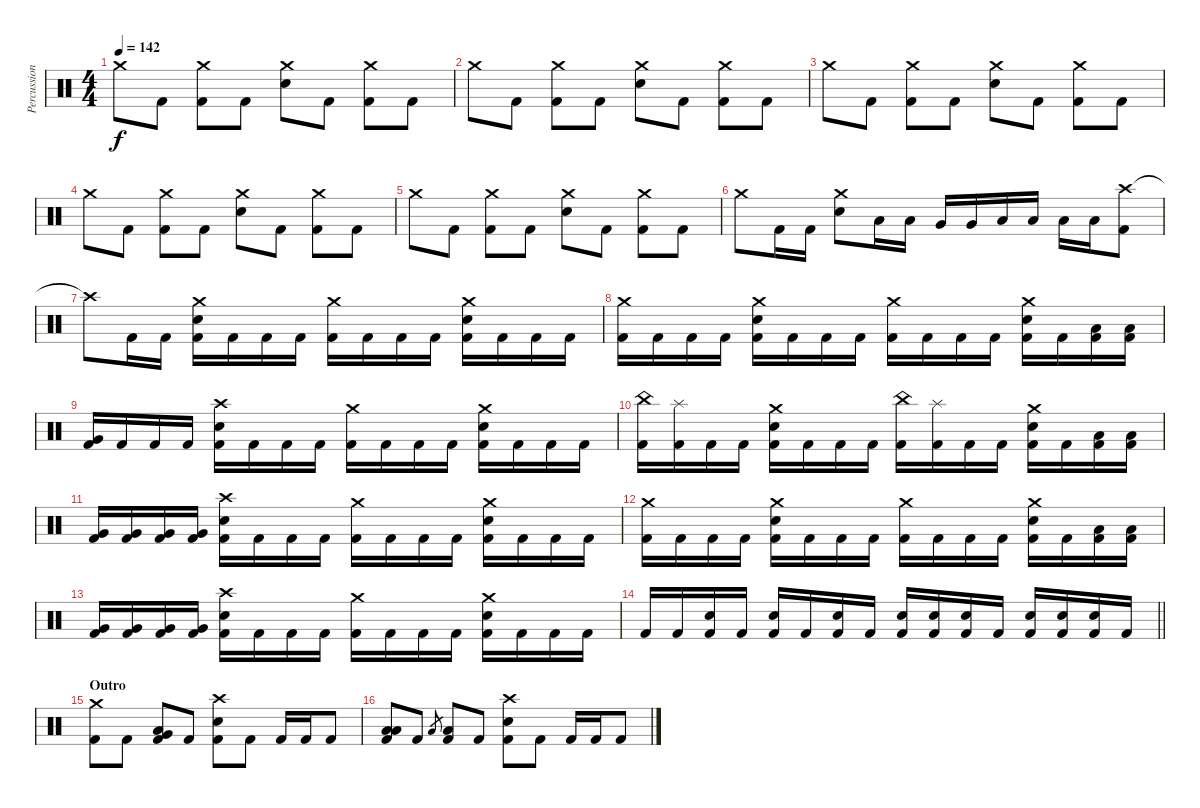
\track ("Percussion" "Percussion") {instrument percussion}
\staff {score}
\articulation defaults
\ts (4 4)
\tempo 142
\clef neutral
\ks c "Crash medium (hit)".8{dy f} "Kick (hit) 2".8
("Crash medium (hit)" "Kick (hit) 2").8 "Kick (hit) 2".8 ("Crash medium (hit)" "Electric Snare (hit)").8 "Kick (hit) 2".8 ("Crash medium (hit)" "Kick (hit) 2").8 "Kick (hit) 2".8 |
"Crash medium (hit)".8 "Kick (hit) 2".8 ("Crash medium (hit)" "Kick (hit) 2").8 "Kick (hit) 2".8 ("Crash medium (hit)" "Electric Snare (hit)").8 "Kick (hit) 2".8 ("Crash medium (hit)" "Kick (hit) 2").8 "Kick (hit) 2".8 |
"Crash medium (hit)".8 "Kick (hit) 2".8 ("Crash medium (hit)" "Kick (hit) 2").8 "Kick (hit) 2".8 ("Crash medium (hit)" "Electric Snare (hit)").8 "Kick (hit) 2".8 ("Crash medium (hit)" "Kick (hit) 2").8 "Kick (hit) 2".8 |
"Crash medium (hit)".8 "Kick (hit) 2".8 ("Crash medium (hit)" "Kick (hit) 2").8 "Kick (hit) 2".8 ("Crash medium (hit)" "Electric Snare (hit)").8 "Kick (hit) 2".8 ("Crash medium (hit)" "Kick (hit) 2").8 "Kick (hit) 2".8 |
"Crash medium (hit)".8 "Kick (hit) 2".8 ("Crash medium (hit)" "Kick (hit) 2").8 "Kick (hit) 2".8 ("Crash medium (hit)" "Electric Snare (hit)").8 "Kick (hit) 2".8 ("Crash medium (hit)" "Kick (hit) 2").8 "Kick (hit) 2".8 |
"Crash medium (hit)".8 "Kick (hit) 2".16 "Kick (hit) 2".16 ("Crash medium (hit)" "Electric Snare (hit)").8 "Low Tom (hit)".16 "Low Tom (hit)".16 "Very Low Tom (hit)".16 "Very Low Tom (hit)".16 "Low Floor Tom (hit)".16 "Low Floor Tom (hit)".16 "Low Floor Tom (hit)".16 "Low Floor Tom (hit)".16 ("Crash high (hit)" "Kick (hit) 2").8 |
"Crash high (hit)"{t}.8 "Kick (hit) 2".16 "Kick (hit) 2".16 ("Crash medium (hit)" "Electric Snare (hit)" "Kick (hit) 2").16 "Kick (hit) 2".16 "Kick (hit) 2".16 "Kick (hit) 2".16 ("Crash medium (hit)" "Kick (hit) 2").16 "Kick (hit) 2".16 "Kick (hit) 2".16 "Kick (hit) 2".16 ("Crash medium (hit)" "Electric Snare (hit)" "Kick (hit) 2").16 "Kick (hit) 2".16 "Kick (hit) 2".16 "Kick (hit) 2".16 |
("Crash medium (hit)" "Kick (hit) 2").16 "Kick (hit) 2".16 "Kick (hit) 2".16 "Kick (hit) 2".16 ("Crash medium (hit)" "Electric Snare (hit)" "Kick (hit) 2").16 "Kick (hit) 2".16 "Kick (hit) 2".16 "Kick (hit) 2".16 ("Crash medium (hit)" "Kick (hit) 2").16 "Kick (hit) 2".16 "Kick (hit) 2".16 "Kick (hit) 2".16 ("Crash medium (hit)" "Electric Snare (hit)" "Kick (hit) 2").16 "Kick (hit) 2".16 ("Low Tom (hit)" "Kick (hit) 2").16 ("Low Tom (hit)" "Kick (hit) 2").16 |
("Very Low Tom (hit)" "Kick (hit) 2").16 "Kick (hit) 2".16 "Kick (hit) 2".16 "Kick (hit) 2".16 ("Crash high (hit)" "Electric Snare (hit)" "Kick (hit) 2").16 "Kick (hit) 2".16 "Kick (hit) 2".16 "Kick (hit) 2".16 ("Crash medium (hit)" "Kick (hit) 2").16 "Kick (hit) 2".16 "Kick (hit) 2".16 "Kick (hit) 2".16 ("Crash medium (hit)" "Electric Snare (hit)" "Kick (hit) 2").16 "Kick (hit) 2".16 "Kick (hit) 2".16 "Kick (hit) 2".16 |
("China (hit)" "Kick (hit) 2").16 ("Splash (hit)" "Kick (hit) 2").16 "Kick (hit) 2".16 "Kick (hit) 2".16 ("Crash medium (hit)" "Electric Snare (hit)" "Kick (hit) 2").16 "Kick (hit) 2".16 "Kick (hit) 2".16 "Kick (hit) 2".16 ("China (hit)" "Kick (hit) 2").16 ("Splash (hit)" "Kick (hit) 2").16 "Kick (hit) 2".16 "Kick (hit) 2".16 ("Crash medium (hit)" "Electric Snare (hit)" "Kick (hit) 2").16 "Kick (hit) 2".16 ("Low Tom (hit)" "Kick (hit) 2").16 ("Low Tom (hit)" "Kick (hit) 2").16 |
("Very Low Tom (hit)" "Kick (hit) 2").16 ("Very Low Tom (hit)" "Kick (hit) 2").16 ("Very Low Tom (hit)" "Kick (hit) 2").16 ("Very Low Tom (hit)" "Kick (hit) 2").16 ("Crash high (hit)" "Electric Snare (hit)" "Kick (hit) 2").16 "Kick (hit) 2".16 "Kick (hit) 2".16 "Kick (hit) 2".16 ("Crash medium (hit)" "Kick (hit) 2").16 "Kick (hit) 2".16 "Kick (hit) 2".16 "Kick (hit) 2".16 ("Crash medium (hit)" "Electric Snare (hit)" "Kick (hit) 2").16 "Kick (hit) 2".16 "Kick (hit) 2".16 "Kick (hit) 2".16 |
("Crash medium (hit)" "Kick (hit) 2").16 "Kick (hit) 2".16 "Kick (hit) 2".16 "Kick (hit) 2".16 ("Crash medium (hit)" "Electric Snare (hit)" "Kick (hit) 2").16 "Kick (hit) 2".16 "Kick (hit) 2".16 "Kick (hit) 2".16 ("Crash medium (hit)" "Kick (hit) 2").16 "Kick (hit) 2".16 "Kick (hit) 2".16 "Kick (hit) 2".16 ("Crash medium (hit)" "Electric Snare (hit)" "Kick (hit) 2").16 "Kick (hit) 2".16 ("Low Tom (hit)" "Kick (hit) 2").16 ("Low Tom (hit)" "Kick (hit) 2").16 |
("Very Low Tom (hit)" "Kick (hit) 2").16 ("Very Low Tom (hit)" "Kick (hit) 2").16 ("Very Low Tom (hit)" "Kick (hit) 2").16 ("Very Low Tom (hit)" "Kick (hit) 2").16 ("Crash high (hit)" "Electric Snare (hit)" "Kick (hit) 2").16 "Kick (hit) 2".16 "Kick (hit) 2".16 "Kick (hit) 2".16 ("Crash medium (hit)" "Kick (hit) 2").16 "Kick (hit) 2".16 "Kick (hit) 2".16 "Kick (hit) 2".16 ("Crash medium (hit)" "Electric Snare (hit)" "Kick (hit) 2").16 "Kick (hit) 2".16 "Kick (hit) 2".16 "Kick (hit) 2".16 |
\barLineRight lightlight "Kick (hit) 2".16 "Kick (hit) 2".16
("Electric Snare (hit)" "Kick (hit) 2").16 "Kick (hit) 2".16 ("Electric Snare (hit)" "Kick (hit) 2").16 "Kick (hit) 2".16 ("Electric Snare (hit)" "Kick (hit) 2").16 "Kick (hit) 2".16 ("Electric Snare (hit)" "Kick (hit) 2").16 ("Electric Snare (hit)" "Kick (hit) 2").16 ("Electric Snare (hit)" "Kick (hit) 2").16 "Kick (hit) 2".16 ("Electric Snare (hit)" "Kick (hit) 2").16 ("Electric Snare (hit)" "Kick (hit) 2").16 ("Electric Snare (hit)" "Kick (hit) 2").16 "Kick (hit) 2".16 |
\section ("" "Outro")
("Crash medium (hit)" "Kick (hit) 2").8 "Kick (hit) 2".8 ("Very Low Tom (hit)" "Low Floor Tom (hit)" "Kick (hit) 2").8 "Kick (hit) 2".8 ("Crash high (hit)" "Electric Snare (hit)" "Kick (hit) 2").8 "Kick (hit) 2".8 "Kick (hit) 2".16 "Kick (hit) 2".16 "Kick (hit) 2".8 |
("Low Tom (hit)" "Low Floor Tom (hit)" "Kick (hit) 2").8 "Kick (hit) 2".8 "Low Tom (hit)".8{gr} ("Low Tom (hit)" "Kick (hit) 2").8 "Kick (hit) 2".8 ("Crash high (hit)" "Electric Snare (hit)" "Kick (hit) 2").8 "Kick (hit) 2".8 "Kick (hit) 2".16 "Kick (hit) 2".16 "Kick (hit) 2".8
